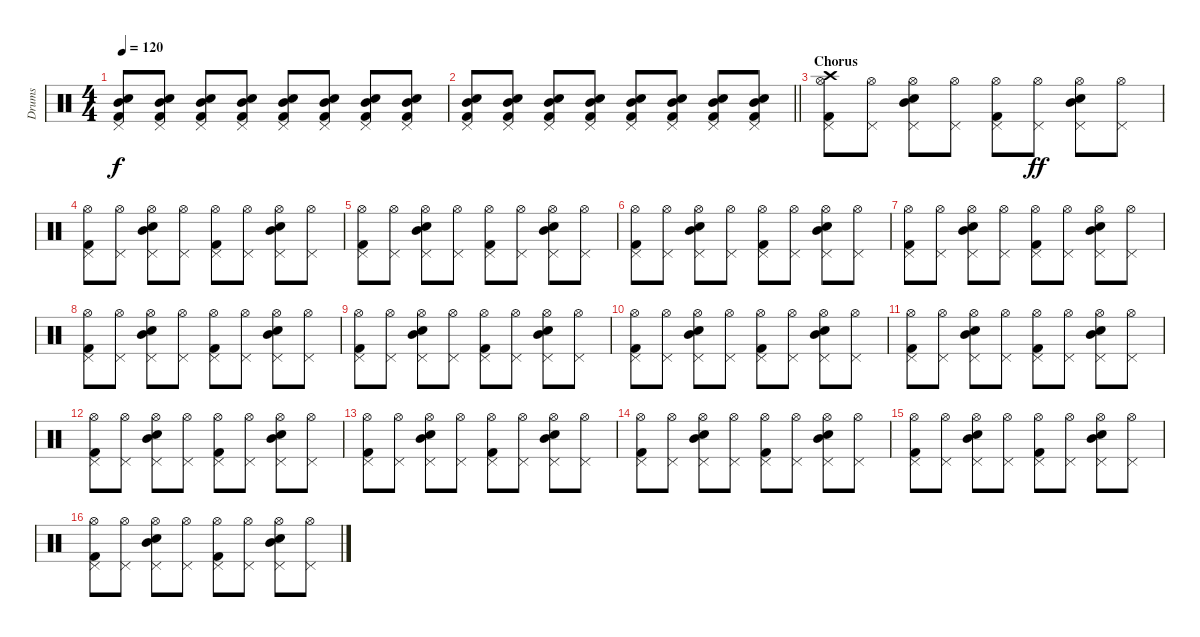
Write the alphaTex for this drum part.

\track ("Drums" "Drums") {instrument percussion}
\staff {score}
\articulation defaults
\ts (4 4)
\tempo 120
\clef neutral
\ks c
("Snare (hit) 2" "Mid Tom (hit)" "Pedal Hi-Hat (hit)" "Kick (hit) 2").8{dy f volume 8} ("Snare (hit) 2" "Mid Tom (hit)" "Pedal Hi-Hat (hit)" "Kick (hit) 2").8 ("Snare (hit) 2" "Mid Tom (hit)" "Pedal Hi-Hat (hit)" "Kick (hit) 2").8 ("Snare (hit) 2" "Mid Tom (hit)" "Pedal Hi-Hat (hit)" "Kick (hit) 2").8 ("Snare (hit) 2" "Mid Tom (hit)" "Pedal Hi-Hat (hit)" "Kick (hit) 2").8{volume 9} ("Snare (hit) 2" "Mid Tom (hit)" "Pedal Hi-Hat (hit)" "Kick (hit) 2").8 ("Snare (hit) 2" "Mid Tom (hit)" "Pedal Hi-Hat (hit)" "Kick (hit) 2").8 ("Snare (hit) 2" "Mid Tom (hit)" "Pedal Hi-Hat (hit)" "Kick (hit) 2").8 |
\barLineRight lightlight
("Snare (hit) 2" "Mid Tom (hit)" "Pedal Hi-Hat (hit)" "Kick (hit) 2").8{volume 10} ("Snare (hit) 2" "Mid Tom (hit)" "Pedal Hi-Hat (hit)" "Kick (hit) 2").8{volume 10} ("Snare (hit) 2" "Mid Tom (hit)" "Pedal Hi-Hat (hit)" "Kick (hit) 2").8{volume 11} ("Snare (hit) 2" "Mid Tom (hit)" "Pedal Hi-Hat (hit)" "Kick (hit) 2").8{volume 11} ("Snare (hit) 2" "Mid Tom (hit)" "Pedal Hi-Hat (hit)" "Kick (hit) 2").8{volume 12} ("Snare (hit) 2" "Mid Tom (hit)" "Pedal Hi-Hat (hit)" "Kick (hit) 2").8{volume 12} ("Snare (hit) 2" "Mid Tom (hit)" "Pedal Hi-Hat (hit)" "Kick (hit) 2").8{volume 12} ("Snare (hit) 2" "Mid Tom (hit)" "Pedal Hi-Hat (hit)" "Kick (hit) 2").8{volume 12} |
\section ("" "Chorus")
("Pedal Hi-Hat (hit)" "Hi-Hat (open)" "Crash high (hit)" "Kick (hit) 2").8 ("Pedal Hi-Hat (hit)" "Hi-Hat (open)").8 ("Pedal Hi-Hat (hit)" "Hi-Hat (open)" "Electric Snare (hit)" "Mid Tom (hit)").8 ("Pedal Hi-Hat (hit)" "Hi-Hat (open)").8 ("Pedal Hi-Hat (hit)" "Hi-Hat (open)" "Kick (hit) 2").8 ("Pedal Hi-Hat (hit)" "Hi-Hat (open)").8{dy ff} ("Pedal Hi-Hat (hit)" "Hi-Hat (open)" "Electric Snare (hit)" "Mid Tom (hit)").8 ("Pedal Hi-Hat (hit)" "Hi-Hat (open)").8 |
("Pedal Hi-Hat (hit)" "Hi-Hat (open)" "Kick (hit) 2").8 ("Pedal Hi-Hat (hit)" "Hi-Hat (open)").8 ("Pedal Hi-Hat (hit)" "Hi-Hat (open)" "Electric Snare (hit)" "Mid Tom (hit)").8 ("Pedal Hi-Hat (hit)" "Hi-Hat (open)").8 ("Pedal Hi-Hat (hit)" "Hi-Hat (open)" "Kick (hit) 2").8 ("Pedal Hi-Hat (hit)" "Hi-Hat (open)").8 ("Pedal Hi-Hat (hit)" "Hi-Hat (open)" "Electric Snare (hit)" "Mid Tom (hit)").8 ("Pedal Hi-Hat (hit)" "Hi-Hat (open)").8 |
("Pedal Hi-Hat (hit)" "Hi-Hat (open)" "Kick (hit) 2").8 ("Pedal Hi-Hat (hit)" "Hi-Hat (open)").8 ("Pedal Hi-Hat (hit)" "Hi-Hat (open)" "Electric Snare (hit)" "Mid Tom (hit)").8 ("Pedal Hi-Hat (hit)" "Hi-Hat (open)").8 ("Pedal Hi-Hat (hit)" "Hi-Hat (open)" "Kick (hit) 2").8 ("Pedal Hi-Hat (hit)" "Hi-Hat (open)").8 ("Pedal Hi-Hat (hit)" "Hi-Hat (open)" "Electric Snare (hit)" "Mid Tom (hit)").8 ("Pedal Hi-Hat (hit)" "Hi-Hat (open)").8 |
("Pedal Hi-Hat (hit)" "Hi-Hat (open)" "Kick (hit) 2").8 ("Pedal Hi-Hat (hit)" "Hi-Hat (open)").8 ("Pedal Hi-Hat (hit)" "Hi-Hat (open)" "Electric Snare (hit)" "Mid Tom (hit)").8 ("Pedal Hi-Hat (hit)" "Hi-Hat (open)").8 ("Pedal Hi-Hat (hit)" "Hi-Hat (open)" "Kick (hit) 2").8 ("Pedal Hi-Hat (hit)" "Hi-Hat (open)").8 ("Pedal Hi-Hat (hit)" "Hi-Hat (open)" "Electric Snare (hit)" "Mid Tom (hit)").8 ("Pedal Hi-Hat (hit)" "Hi-Hat (open)").8 |
("Pedal Hi-Hat (hit)" "Hi-Hat (open)" "Kick (hit) 2").8 ("Pedal Hi-Hat (hit)" "Hi-Hat (open)").8 ("Pedal Hi-Hat (hit)" "Hi-Hat (open)" "Electric Snare (hit)" "Mid Tom (hit)").8 ("Pedal Hi-Hat (hit)" "Hi-Hat (open)").8 ("Pedal Hi-Hat (hit)" "Hi-Hat (open)" "Kick (hit) 2").8 ("Pedal Hi-Hat (hit)" "Hi-Hat (open)").8 ("Pedal Hi-Hat (hit)" "Hi-Hat (open)" "Electric Snare (hit)" "Mid Tom (hit)").8 ("Pedal Hi-Hat (hit)" "Hi-Hat (open)").8 |
("Pedal Hi-Hat (hit)" "Hi-Hat (open)" "Kick (hit) 2").8 ("Pedal Hi-Hat (hit)" "Hi-Hat (open)").8 ("Pedal Hi-Hat (hit)" "Hi-Hat (open)" "Electric Snare (hit)" "Mid Tom (hit)").8 ("Pedal Hi-Hat (hit)" "Hi-Hat (open)").8 ("Pedal Hi-Hat (hit)" "Hi-Hat (open)" "Kick (hit) 2").8 ("Pedal Hi-Hat (hit)" "Hi-Hat (open)").8 ("Pedal Hi-Hat (hit)" "Hi-Hat (open)" "Electric Snare (hit)" "Mid Tom (hit)").8 ("Pedal Hi-Hat (hit)" "Hi-Hat (open)").8 |
("Pedal Hi-Hat (hit)" "Hi-Hat (open)" "Kick (hit) 2").8 ("Pedal Hi-Hat (hit)" "Hi-Hat (open)").8 ("Pedal Hi-Hat (hit)" "Hi-Hat (open)" "Electric Snare (hit)" "Mid Tom (hit)").8 ("Pedal Hi-Hat (hit)" "Hi-Hat (open)").8 ("Pedal Hi-Hat (hit)" "Hi-Hat (open)" "Kick (hit) 2").8 ("Pedal Hi-Hat (hit)" "Hi-Hat (open)").8 ("Pedal Hi-Hat (hit)" "Hi-Hat (open)" "Electric Snare (hit)" "Mid Tom (hit)").8 ("Pedal Hi-Hat (hit)" "Hi-Hat (open)").8 |
("Pedal Hi-Hat (hit)" "Hi-Hat (open)" "Kick (hit) 2").8 ("Pedal Hi-Hat (hit)" "Hi-Hat (open)").8 ("Pedal Hi-Hat (hit)" "Hi-Hat (open)" "Electric Snare (hit)" "Mid Tom (hit)").8 ("Pedal Hi-Hat (hit)" "Hi-Hat (open)").8 ("Pedal Hi-Hat (hit)" "Hi-Hat (open)" "Kick (hit) 2").8 ("Pedal Hi-Hat (hit)" "Hi-Hat (open)").8 ("Pedal Hi-Hat (hit)" "Hi-Hat (open)" "Electric Snare (hit)" "Mid Tom (hit)").8 ("Pedal Hi-Hat (hit)" "Hi-Hat (open)").8 |
("Pedal Hi-Hat (hit)" "Hi-Hat (open)" "Kick (hit) 2").8 ("Pedal Hi-Hat (hit)" "Hi-Hat (open)").8 ("Pedal Hi-Hat (hit)" "Hi-Hat (open)" "Electric Snare (hit)" "Mid Tom (hit)").8 ("Pedal Hi-Hat (hit)" "Hi-Hat (open)").8 ("Pedal Hi-Hat (hit)" "Hi-Hat (open)" "Kick (hit) 2").8 ("Pedal Hi-Hat (hit)" "Hi-Hat (open)").8 ("Pedal Hi-Hat (hit)" "Hi-Hat (open)" "Electric Snare (hit)" "Mid Tom (hit)").8 ("Pedal Hi-Hat (hit)" "Hi-Hat (open)").8 |
("Pedal Hi-Hat (hit)" "Hi-Hat (open)" "Kick (hit) 2").8 ("Pedal Hi-Hat (hit)" "Hi-Hat (open)").8 ("Pedal Hi-Hat (hit)" "Hi-Hat (open)" "Electric Snare (hit)" "Mid Tom (hit)").8 ("Pedal Hi-Hat (hit)" "Hi-Hat (open)").8 ("Pedal Hi-Hat (hit)" "Hi-Hat (open)" "Kick (hit) 2").8 ("Pedal Hi-Hat (hit)" "Hi-Hat (open)").8 ("Pedal Hi-Hat (hit)" "Hi-Hat (open)" "Electric Snare (hit)" "Mid Tom (hit)").8 ("Pedal Hi-Hat (hit)" "Hi-Hat (open)").8 |
("Pedal Hi-Hat (hit)" "Hi-Hat (open)" "Kick (hit) 2").8 ("Pedal Hi-Hat (hit)" "Hi-Hat (open)").8 ("Pedal Hi-Hat (hit)" "Hi-Hat (open)" "Electric Snare (hit)" "Mid Tom (hit)").8 ("Pedal Hi-Hat (hit)" "Hi-Hat (open)").8 ("Pedal Hi-Hat (hit)" "Hi-Hat (open)" "Kick (hit) 2").8 ("Pedal Hi-Hat (hit)" "Hi-Hat (open)").8 ("Pedal Hi-Hat (hit)" "Hi-Hat (open)" "Electric Snare (hit)" "Mid Tom (hit)").8 ("Pedal Hi-Hat (hit)" "Hi-Hat (open)").8 |
("Pedal Hi-Hat (hit)" "Hi-Hat (open)" "Kick (hit) 2").8 ("Pedal Hi-Hat (hit)" "Hi-Hat (open)").8 ("Pedal Hi-Hat (hit)" "Hi-Hat (open)" "Electric Snare (hit)" "Mid Tom (hit)").8 ("Pedal Hi-Hat (hit)" "Hi-Hat (open)").8 ("Pedal Hi-Hat (hit)" "Hi-Hat (open)" "Kick (hit) 2").8 ("Pedal Hi-Hat (hit)" "Hi-Hat (open)").8 ("Pedal Hi-Hat (hit)" "Hi-Hat (open)" "Electric Snare (hit)" "Mid Tom (hit)").8 ("Pedal Hi-Hat (hit)" "Hi-Hat (open)").8 |
("Pedal Hi-Hat (hit)" "Hi-Hat (open)" "Kick (hit) 2").8 ("Pedal Hi-Hat (hit)" "Hi-Hat (open)").8 ("Pedal Hi-Hat (hit)" "Hi-Hat (open)" "Electric Snare (hit)" "Mid Tom (hit)").8 ("Pedal Hi-Hat (hit)" "Hi-Hat (open)").8 ("Pedal Hi-Hat (hit)" "Hi-Hat (open)" "Kick (hit) 2").8 ("Pedal Hi-Hat (hit)" "Hi-Hat (open)").8 ("Pedal Hi-Hat (hit)" "Hi-Hat (open)" "Electric Snare (hit)" "Mid Tom (hit)").8 ("Pedal Hi-Hat (hit)" "Hi-Hat (open)").8 |
("Pedal Hi-Hat (hit)" "Hi-Hat (open)" "Kick (hit) 2").8 ("Pedal Hi-Hat (hit)" "Hi-Hat (open)").8 ("Pedal Hi-Hat (hit)" "Hi-Hat (open)" "Electric Snare (hit)" "Mid Tom (hit)").8 ("Pedal Hi-Hat (hit)" "Hi-Hat (open)").8 ("Pedal Hi-Hat (hit)" "Hi-Hat (open)" "Kick (hit) 2").8 ("Pedal Hi-Hat (hit)" "Hi-Hat (open)").8 ("Pedal Hi-Hat (hit)" "Hi-Hat (open)" "Electric Snare (hit)" "Mid Tom (hit)").8 ("Pedal Hi-Hat (hit)" "Hi-Hat (open)").8
